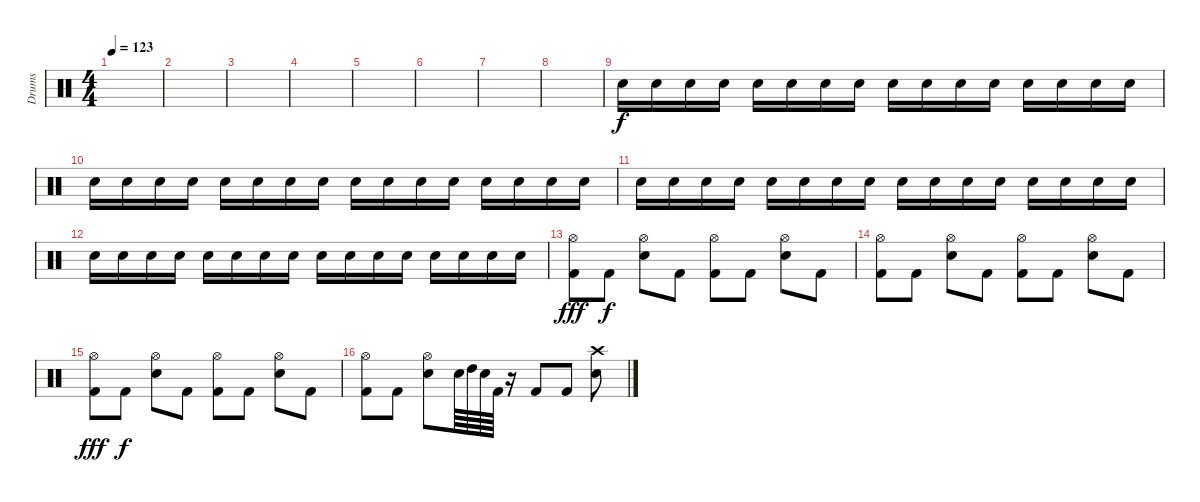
\track ("Drums" "Drums") {instrument percussion}
\staff {score}
\articulation defaults
\ts (4 4)
\tempo 123
\clef neutral
\ks c
|
|
|
|
|
|
|
|
"Electric Snare (hit)".16 "Electric Snare (hit)".16 "Electric Snare (hit)".16 "Electric Snare (hit)".16 "Electric Snare (hit)".16 "Electric Snare (hit)".16 "Electric Snare (hit)".16 "Electric Snare (hit)".16 "Electric Snare (hit)".16 "Electric Snare (hit)".16 "Electric Snare (hit)".16 "Electric Snare (hit)".16 "Electric Snare (hit)".16 "Electric Snare (hit)".16 "Electric Snare (hit)".16 "Electric Snare (hit)".16 |
"Electric Snare (hit)".16 "Electric Snare (hit)".16 "Electric Snare (hit)".16 "Electric Snare (hit)".16 "Electric Snare (hit)".16 "Electric Snare (hit)".16 "Electric Snare (hit)".16 "Electric Snare (hit)".16 "Electric Snare (hit)".16 "Electric Snare (hit)".16 "Electric Snare (hit)".16 "Electric Snare (hit)".16 "Electric Snare (hit)".16 "Electric Snare (hit)".16 "Electric Snare (hit)".16 "Electric Snare (hit)".16 |
"Electric Snare (hit)".16 "Electric Snare (hit)".16 "Electric Snare (hit)".16 "Electric Snare (hit)".16 "Electric Snare (hit)".16 "Electric Snare (hit)".16 "Electric Snare (hit)".16 "Electric Snare (hit)".16 "Electric Snare (hit)".16 "Electric Snare (hit)".16 "Electric Snare (hit)".16 "Electric Snare (hit)".16 "Electric Snare (hit)".16 "Electric Snare (hit)".16 "Electric Snare (hit)".16 "Electric Snare (hit)".16 |
"Electric Snare (hit)".16 "Electric Snare (hit)".16 "Electric Snare (hit)".16 "Electric Snare (hit)".16 "Electric Snare (hit)".16 "Electric Snare (hit)".16 "Electric Snare (hit)".16 "Electric Snare (hit)".16 "Electric Snare (hit)".16 "Electric Snare (hit)".16 "Electric Snare (hit)".16 "Electric Snare (hit)".16 "Electric Snare (hit)".16 "Electric Snare (hit)".16 "Electric Snare (hit)".16 "Electric Snare (hit)".16 |
("Hi-Hat (open)" "Kick (hit) 2").8{dy fff} "Kick (hit) 2".8{dy f} ("Hi-Hat (open)" "Electric Snare (hit)").8 "Kick (hit) 2".8 ("Hi-Hat (open)" "Kick (hit) 2").8 "Kick (hit) 2".8 ("Hi-Hat (open)" "Electric Snare (hit)").8 "Kick (hit) 2".8 |
("Hi-Hat (open)" "Kick (hit) 2").8 "Kick (hit) 2".8 ("Hi-Hat (open)" "Electric Snare (hit)").8 "Kick (hit) 2".8 ("Hi-Hat (open)" "Kick (hit) 2").8 "Kick (hit) 2".8 ("Hi-Hat (open)" "Electric Snare (hit)").8 "Kick (hit) 2".8 |
("Hi-Hat (open)" "Kick (hit) 2").8{dy fff} "Kick (hit) 2".8{dy f} ("Hi-Hat (open)" "Electric Snare (hit)").8 "Kick (hit) 2".8 ("Hi-Hat (open)" "Kick (hit) 2").8 "Kick (hit) 2".8 ("Hi-Hat (open)" "Electric Snare (hit)").8 "Kick (hit) 2".8 |
("Hi-Hat (open)" "Kick (hit) 2").8 "Kick (hit) 2".8 ("Hi-Hat (open)" "Electric Snare (hit)").8 "Electric Snare (hit)".64 "High Tom (hit)".64 "Electric Snare (hit)".64 "Kick (hit) 2".64 r.16 "Kick (hit) 2".8 "Kick (hit) 2".8 ("Crash high (hit)" "Electric Snare (hit)").8
